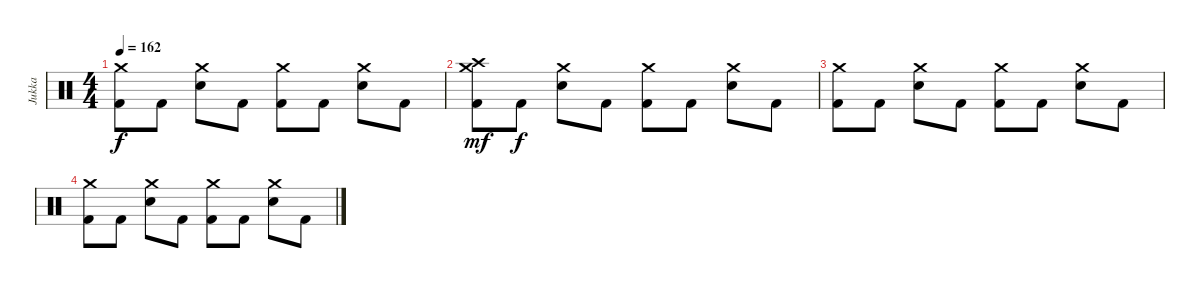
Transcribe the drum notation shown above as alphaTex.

\track ("Jukka" "Jukka") {instrument percussion}
\staff {score}
\articulation defaults
\ts (4 4)
\tempo 162
\clef neutral
\ks c
("Crash medium (hit)" "Kick (hit) 2").8{dy f} "Kick (hit) 2".8 ("Crash medium (hit)" "Electric Snare (hit)").8 "Kick (hit) 2".8 ("Crash medium (hit)" "Kick (hit) 2").8 "Kick (hit) 2".8 ("Crash medium (hit)" "Electric Snare (hit)").8 "Kick (hit) 2".8 |
("Crash high (hit)" "Crash medium (hit)" "Kick (hit) 2").8{dy mf} "Kick (hit) 2".8{dy f} ("Crash medium (hit)" "Electric Snare (hit)").8 "Kick (hit) 2".8 ("Crash medium (hit)" "Kick (hit) 2").8 "Kick (hit) 2".8 ("Crash medium (hit)" "Electric Snare (hit)").8 "Kick (hit) 2".8 |
("Crash medium (hit)" "Kick (hit) 2").8 "Kick (hit) 2".8 ("Crash medium (hit)" "Electric Snare (hit)").8 "Kick (hit) 2".8 ("Crash medium (hit)" "Kick (hit) 2").8 "Kick (hit) 2".8 ("Crash medium (hit)" "Electric Snare (hit)").8 "Kick (hit) 2".8 |
("Crash medium (hit)" "Kick (hit) 2").8 "Kick (hit) 2".8 ("Crash medium (hit)" "Electric Snare (hit)").8 "Kick (hit) 2".8 ("Crash medium (hit)" "Kick (hit) 2").8 "Kick (hit) 2".8 ("Crash medium (hit)" "Electric Snare (hit)").8 "Kick (hit) 2".8
